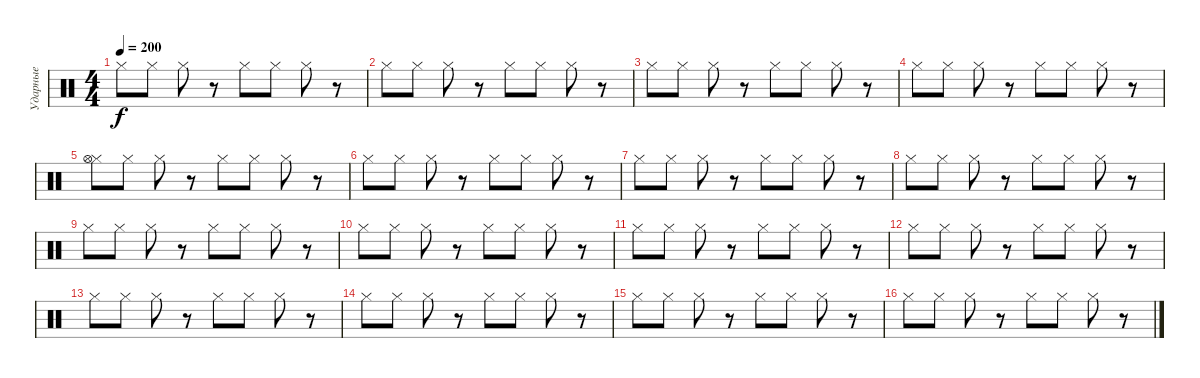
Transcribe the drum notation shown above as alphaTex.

\track ("Ударные" "Ударные") {instrument percussion}
\staff {score}
\articulation defaults
\ts (4 4)
\tempo 200
\clef neutral
\ks c "Hi-Hat (closed)".8{dy f} "Hi-Hat (closed)".8 "Hi-Hat (closed)".8
r.8 "Hi-Hat (closed)".8 "Hi-Hat (closed)".8 "Hi-Hat (closed)".8 r.8 |
"Hi-Hat (closed)".8 "Hi-Hat (closed)".8 "Hi-Hat (closed)".8 r.8 "Hi-Hat (closed)".8 "Hi-Hat (closed)".8 "Hi-Hat (closed)".8 r.8 |
"Hi-Hat (closed)".8 "Hi-Hat (closed)".8 "Hi-Hat (closed)".8 r.8 "Hi-Hat (closed)".8 "Hi-Hat (closed)".8 "Hi-Hat (closed)".8 r.8 |
"Hi-Hat (closed)".8 "Hi-Hat (closed)".8 "Hi-Hat (closed)".8 r.8 "Hi-Hat (closed)".8 "Hi-Hat (closed)".8 "Hi-Hat (closed)".8 r.8 |
("Hi-Hat (closed)" "Hi-Hat (open)").8 "Hi-Hat (closed)".8 "Hi-Hat (closed)".8 r.8 "Hi-Hat (closed)".8 "Hi-Hat (closed)".8 "Hi-Hat (closed)".8 r.8 |
"Hi-Hat (closed)".8 "Hi-Hat (closed)".8 "Hi-Hat (closed)".8 r.8 "Hi-Hat (closed)".8 "Hi-Hat (closed)".8 "Hi-Hat (closed)".8 r.8 |
"Hi-Hat (closed)".8 "Hi-Hat (closed)".8 "Hi-Hat (closed)".8 r.8 "Hi-Hat (closed)".8 "Hi-Hat (closed)".8 "Hi-Hat (closed)".8 r.8 |
"Hi-Hat (closed)".8 "Hi-Hat (closed)".8 "Hi-Hat (closed)".8 r.8 "Hi-Hat (closed)".8 "Hi-Hat (closed)".8 "Hi-Hat (closed)".8 r.8 |
"Hi-Hat (closed)".8 "Hi-Hat (closed)".8 "Hi-Hat (closed)".8 r.8 "Hi-Hat (closed)".8 "Hi-Hat (closed)".8 "Hi-Hat (closed)".8 r.8 |
"Hi-Hat (closed)".8 "Hi-Hat (closed)".8 "Hi-Hat (closed)".8 r.8 "Hi-Hat (closed)".8 "Hi-Hat (closed)".8 "Hi-Hat (closed)".8 r.8 |
"Hi-Hat (closed)".8 "Hi-Hat (closed)".8 "Hi-Hat (closed)".8 r.8 "Hi-Hat (closed)".8 "Hi-Hat (closed)".8 "Hi-Hat (closed)".8 r.8 |
"Hi-Hat (closed)".8 "Hi-Hat (closed)".8 "Hi-Hat (closed)".8 r.8 "Hi-Hat (closed)".8 "Hi-Hat (closed)".8 "Hi-Hat (closed)".8 r.8 |
"Hi-Hat (closed)".8 "Hi-Hat (closed)".8 "Hi-Hat (closed)".8 r.8 "Hi-Hat (closed)".8 "Hi-Hat (closed)".8 "Hi-Hat (closed)".8 r.8 |
"Hi-Hat (closed)".8 "Hi-Hat (closed)".8 "Hi-Hat (closed)".8 r.8 "Hi-Hat (closed)".8 "Hi-Hat (closed)".8 "Hi-Hat (closed)".8 r.8 |
"Hi-Hat (closed)".8 "Hi-Hat (closed)".8 "Hi-Hat (closed)".8 r.8 "Hi-Hat (closed)".8 "Hi-Hat (closed)".8 "Hi-Hat (closed)".8 r.8 |
"Hi-Hat (closed)".8 "Hi-Hat (closed)".8 "Hi-Hat (closed)".8 r.8 "Hi-Hat (closed)".8 "Hi-Hat (closed)".8 "Hi-Hat (closed)".8 r.8
